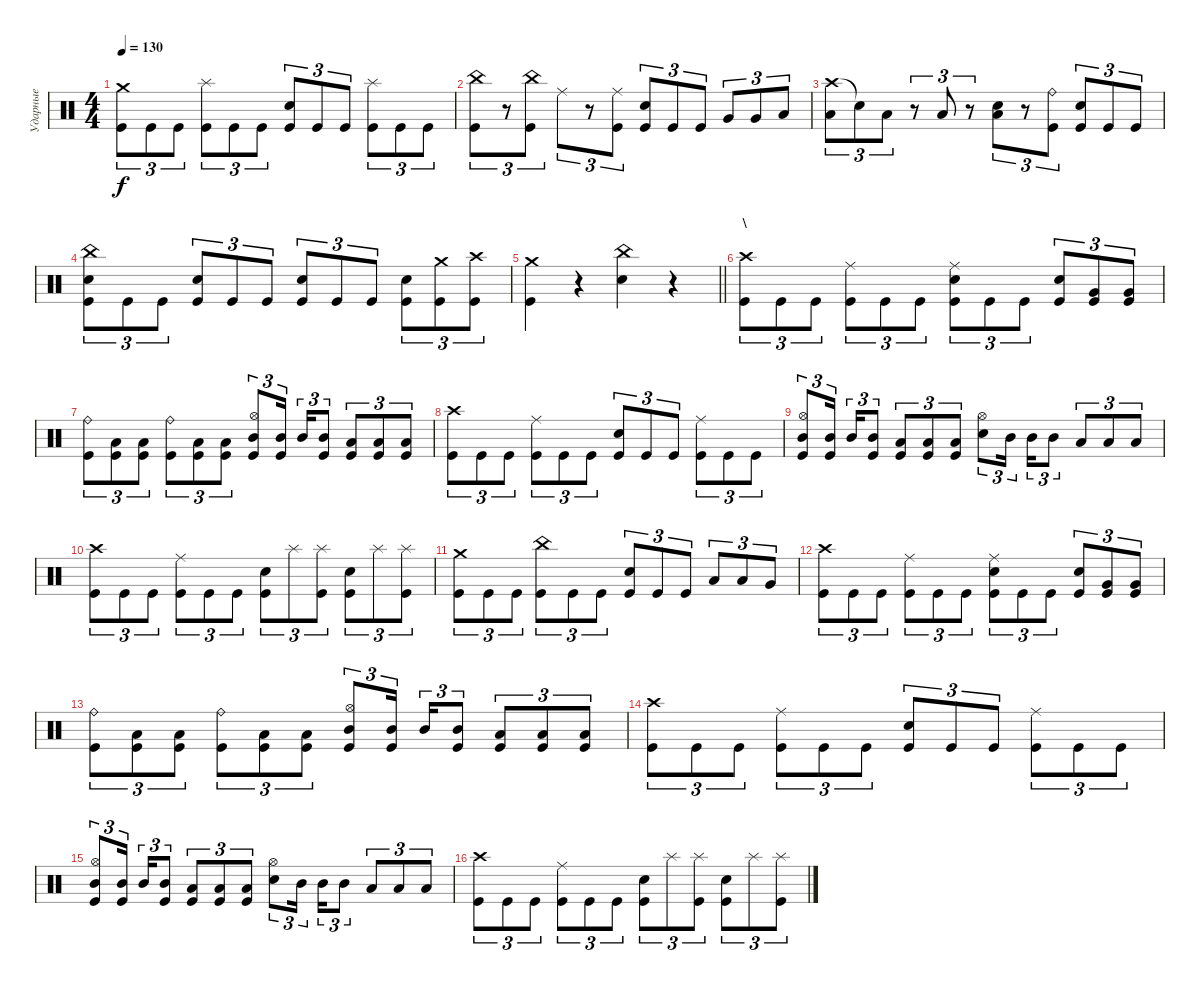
\track ("Ударные" "Ударные") {instrument percussion}
\staff {score}
\articulation defaults
\ts (4 4)
\tempo 130
\clef neutral
\ks c
("Kick (hit)" "Crash medium (hit)").8{tu (3 2) dy f} "Kick (hit)".8{tu (3 2)} "Kick (hit)".8{tu (3 2)} ("Kick (hit)" "Splash (hit)").8{tu (3 2)} "Kick (hit)".8{tu (3 2)} "Kick (hit)".8{tu (3 2)} ("Kick (hit)" "Electric Snare (hit)").8{tu (3 2)} "Kick (hit)".8{tu (3 2)} "Kick (hit)".8{tu (3 2)} ("Kick (hit)" "Splash (hit)").8{tu (3 2)} "Kick (hit)".8{tu (3 2)} "Kick (hit)".8{tu (3 2)} |
("China (hit)" "Kick (hit)").8{tu (3 2)} r.8{tu (3 2)} ("China (hit)" "Kick (hit)").8{tu (3 2)} "Ride (middle)".8{tu (3 2)} r.8{tu (3 2)} ("Ride (middle)" "Kick (hit)").8{tu (3 2)} ("Electric Snare (hit)" "Kick (hit)").8{tu (3 2)} "Kick (hit)".8{tu (3 2)} "Kick (hit)".8{tu (3 2)} "Very Low Tom (hit)".8{tu (3 2)} "Very Low Tom (hit)".8{tu (3 2)} "Low Floor Tom (hit)".8{tu (3 2)} |
("Crash high (hit)" "Low Floor Tom (hit)").8{tu (3 2)} "Snare (hit)"{t}.8{tu (3 2)} "Low Floor Tom (hit)".8{tu (3 2)} r.8{tu (3 2)} "Low Floor Tom (hit)".8{tu (3 2)} r.8{tu (3 2)} ("Electric Snare (hit)" "Low Floor Tom (hit)").8{tu (3 2)} r.8{tu (3 2)} ("Ride (bell)" "Kick (hit)").8{tu (3 2)} ("Electric Snare (hit)" "Kick (hit)").8{tu (3 2)} "Kick (hit)".8{tu (3 2)} "Kick (hit)".8{tu (3 2)} |
("China (hit)" "Electric Snare (hit)" "Kick (hit)").8{tu (3 2)} "Kick (hit)".8{tu (3 2)} "Kick (hit)".8{tu (3 2)} ("Electric Snare (hit)" "Kick (hit)").8{tu (3 2)} "Kick (hit)".8{tu (3 2)} "Kick (hit)".8{tu (3 2)} ("Electric Snare (hit)" "Kick (hit)").8{tu (3 2)} "Kick (hit)".8{tu (3 2)} "Kick (hit)".8{tu (3 2)} ("Electric Snare (hit)" "Kick (hit)").8{tu (3 2)} ("Kick (hit)" "Crash medium (hit)").8{tu (3 2)} ("Kick (hit)" "Crash high (hit)").8{tu (3 2)} |
\barLineRight lightlight
("Kick (hit)" "Crash medium (hit)").4 r.4 ("Electric Snare (hit)" "China (hit)").4 r.4 |
\section ("" " \\")
("Crash high (hit)" "Kick (hit)").8{tu (3 2)} "Kick (hit)".8{tu (3 2)} "Kick (hit)".8{tu (3 2)} ("Ride (middle)" "Kick (hit)").8{tu (3 2)} "Kick (hit)".8{tu (3 2)} "Kick (hit)".8{tu (3 2)} ("Ride (middle)" "Electric Snare (hit)" "Kick (hit)").8{tu (3 2)} "Kick (hit)".8{tu (3 2)} "Kick (hit)".8{tu (3 2)} ("Electric Snare (hit)" "Kick (hit)").8{tu (3 2)} ("Very Low Tom (hit)" "Kick (hit)").8{tu (3 2)} ("Very Low Tom (hit)" "Kick (hit)").8{tu (3 2)} |
("Ride (bell)" "Kick (hit)").8{tu (3 2)} ("Low Tom (hit)" "Kick (hit)").8{tu (3 2)} ("Low Tom (hit)" "Kick (hit)").8{tu (3 2)} ("Ride (bell)" "Kick (hit)").8{tu (3 2)} ("Low Floor Tom (hit)" "Kick (hit)").8{tu (3 2)} ("Low Floor Tom (hit)" "Kick (hit)").8{tu (3 2)} ("Hi-Hat (open)" "Mid Tom (hit)" "Kick (hit)").8{tu (3 2)} ("Mid Tom (hit)" "Kick (hit)").16{tu (3 2) beam splitsecondary} "Mid Tom (hit)".16{tu (3 2)} ("Mid Tom (hit)" "Kick (hit)").8{tu (3 2)} ("Low Tom (hit)" "Kick (hit)").8{tu (3 2)} ("Low Tom (hit)" "Kick (hit)").8{tu (3 2)} ("Low Tom (hit)" "Kick (hit)").8{tu (3 2)} |
("Crash high (hit)" "Kick (hit)").8{tu (3 2)} "Kick (hit)".8{tu (3 2)} "Kick (hit)".8{tu (3 2)} ("Ride (middle)" "Kick (hit)").8{tu (3 2)} "Kick (hit)".8{tu (3 2)} "Kick (hit)".8{tu (3 2)} ("Electric Snare (hit)" "Kick (hit)").8{tu (3 2)} "Kick (hit)".8{tu (3 2)} "Kick (hit)".8{tu (3 2)} ("Ride (middle)" "Kick (hit)").8{tu (3 2)} "Kick (hit)".8{tu (3 2)} "Kick (hit)".8{tu (3 2)} |
("Hi-Hat (open)" "Mid Tom (hit)" "Kick (hit)").8{tu (3 2)} ("Mid Tom (hit)" "Kick (hit)").16{tu (3 2) beam splitsecondary} "Mid Tom (hit)".16{tu (3 2)} ("Mid Tom (hit)" "Kick (hit)").8{tu (3 2)} ("Low Tom (hit)" "Kick (hit)").8{tu (3 2)} ("Low Tom (hit)" "Kick (hit)").8{tu (3 2)} ("Low Tom (hit)" "Kick (hit)").8{tu (3 2)} ("Hi-Hat (open)" "Electric Snare (hit)").8{tu (3 2)} "Mid Tom (hit)".16{tu (3 2) beam splitsecondary} "Mid Tom (hit)".16{tu (3 2)} "Mid Tom (hit)".8{tu (3 2)} "Low Tom (hit)".8{tu (3 2)} "Low Tom (hit)".8{tu (3 2)} "Low Tom (hit)".8{tu (3 2)} |
("Crash high (hit)" "Kick (hit)").8{tu (3 2)} "Kick (hit)".8{tu (3 2)} "Kick (hit)".8{tu (3 2)} ("Ride (middle)" "Kick (hit)").8{tu (3 2)} "Kick (hit)".8{tu (3 2)} "Kick (hit)".8{tu (3 2)} ("Electric Snare (hit)" "Kick (hit)").8{tu (3 2)} "Splash (hit)".8{tu (3 2)} ("Splash (hit)" "Kick (hit)").8{tu (3 2)} ("Electric Snare (hit)" "Kick (hit)").8{tu (3 2)} "Splash (hit)".8{tu (3 2)} ("Splash (hit)" "Kick (hit)").8{tu (3 2)} |
("Crash medium (hit)" "Kick (hit)").8{tu (3 2)} "Kick (hit)".8{tu (3 2)} "Kick (hit)".8{tu (3 2)} ("China (hit)" "Kick (hit)").8{tu (3 2)} "Kick (hit)".8{tu (3 2)} "Kick (hit)".8{tu (3 2)} ("Electric Snare (hit)" "Kick (hit)").8{tu (3 2)} "Kick (hit)".8{tu (3 2)} "Kick (hit)".8{tu (3 2)} "Low Tom (hit)".8{tu (3 2)} "Low Tom (hit)".8{tu (3 2)} "Very Low Tom (hit)".8{tu (3 2)} |
("Crash high (hit)" "Kick (hit)").8{tu (3 2)} "Kick (hit)".8{tu (3 2)} "Kick (hit)".8{tu (3 2)} ("Ride (middle)" "Kick (hit)").8{tu (3 2)} "Kick (hit)".8{tu (3 2)} "Kick (hit)".8{tu (3 2)} ("Ride (middle)" "Electric Snare (hit)" "Kick (hit)").8{tu (3 2)} "Kick (hit)".8{tu (3 2)} "Kick (hit)".8{tu (3 2)} ("Electric Snare (hit)" "Kick (hit)").8{tu (3 2)} ("Very Low Tom (hit)" "Kick (hit)").8{tu (3 2)} ("Very Low Tom (hit)" "Kick (hit)").8{tu (3 2)} |
("Ride (bell)" "Kick (hit)").8{tu (3 2)} ("Low Tom (hit)" "Kick (hit)").8{tu (3 2)} ("Low Tom (hit)" "Kick (hit)").8{tu (3 2)} ("Ride (bell)" "Kick (hit)").8{tu (3 2)} ("Low Floor Tom (hit)" "Kick (hit)").8{tu (3 2)} ("Low Floor Tom (hit)" "Kick (hit)").8{tu (3 2)} ("Hi-Hat (open)" "Mid Tom (hit)" "Kick (hit)").8{tu (3 2)} ("Mid Tom (hit)" "Kick (hit)").16{tu (3 2) beam splitsecondary} "Mid Tom (hit)".16{tu (3 2)} ("Mid Tom (hit)" "Kick (hit)").8{tu (3 2)} ("Low Tom (hit)" "Kick (hit)").8{tu (3 2)} ("Low Tom (hit)" "Kick (hit)").8{tu (3 2)} ("Low Tom (hit)" "Kick (hit)").8{tu (3 2)} |
("Crash high (hit)" "Kick (hit)").8{tu (3 2)} "Kick (hit)".8{tu (3 2)} "Kick (hit)".8{tu (3 2)} ("Ride (middle)" "Kick (hit)").8{tu (3 2)} "Kick (hit)".8{tu (3 2)} "Kick (hit)".8{tu (3 2)} ("Electric Snare (hit)" "Kick (hit)").8{tu (3 2)} "Kick (hit)".8{tu (3 2)} "Kick (hit)".8{tu (3 2)} ("Ride (middle)" "Kick (hit)").8{tu (3 2)} "Kick (hit)".8{tu (3 2)} "Kick (hit)".8{tu (3 2)} |
("Hi-Hat (open)" "Mid Tom (hit)" "Kick (hit)").8{tu (3 2)} ("Mid Tom (hit)" "Kick (hit)").16{tu (3 2) beam splitsecondary} "Mid Tom (hit)".16{tu (3 2)} ("Mid Tom (hit)" "Kick (hit)").8{tu (3 2)} ("Low Tom (hit)" "Kick (hit)").8{tu (3 2)} ("Low Tom (hit)" "Kick (hit)").8{tu (3 2)} ("Low Tom (hit)" "Kick (hit)").8{tu (3 2)} ("Hi-Hat (open)" "Electric Snare (hit)").8{tu (3 2)} "Mid Tom (hit)".16{tu (3 2) beam splitsecondary} "Mid Tom (hit)".16{tu (3 2)} "Mid Tom (hit)".8{tu (3 2)} "Low Tom (hit)".8{tu (3 2)} "Low Tom (hit)".8{tu (3 2)} "Low Tom (hit)".8{tu (3 2)} |
("Crash high (hit)" "Kick (hit)").8{tu (3 2)} "Kick (hit)".8{tu (3 2)} "Kick (hit)".8{tu (3 2)} ("Ride (middle)" "Kick (hit)").8{tu (3 2)} "Kick (hit)".8{tu (3 2)} "Kick (hit)".8{tu (3 2)} ("Electric Snare (hit)" "Kick (hit)").8{tu (3 2)} "Splash (hit)".8{tu (3 2)} ("Splash (hit)" "Kick (hit)").8{tu (3 2)} ("Electric Snare (hit)" "Kick (hit)").8{tu (3 2)} "Splash (hit)".8{tu (3 2)} ("Splash (hit)" "Kick (hit)").8{tu (3 2)}
